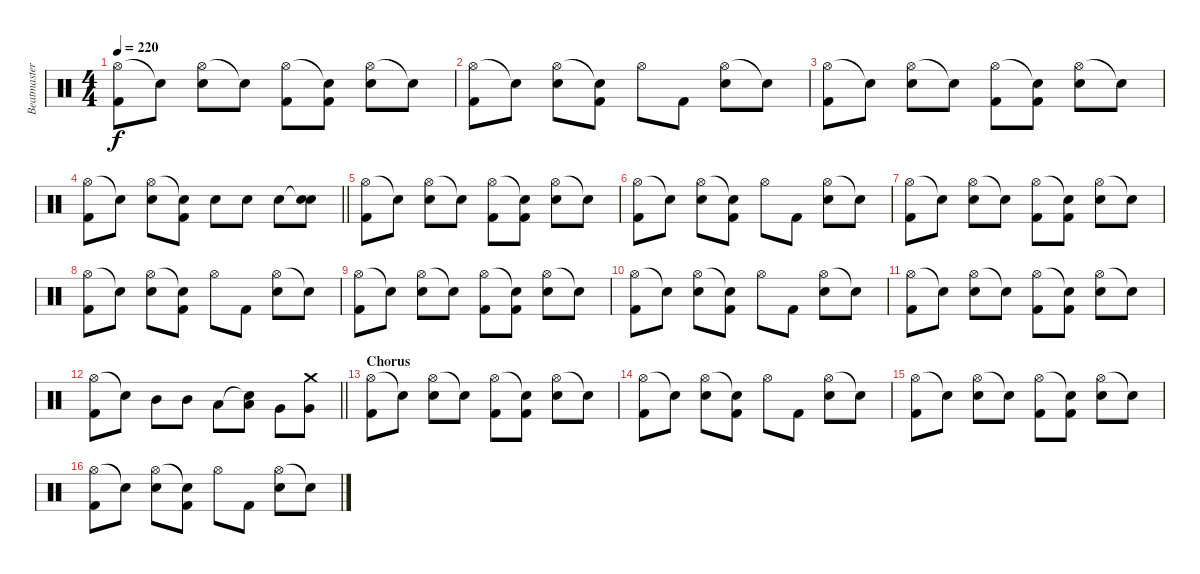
\track ("Beatmaster V" "Beatmaster") {instrument percussion}
\staff {score}
\articulation defaults
\ts (4 4)
\tempo 220
\clef neutral
\ks c
("Hi-Hat (open)" "Kick (hit) 2").8{dy f} "Snare (hit)"{t}.8 ("Hi-Hat (open)" "Snare (hit) 2").8 "Snare (hit)"{t}.8 ("Hi-Hat (open)" "Kick (hit) 2").8 ("Snare (hit)"{t} "Kick (hit) 2").8 ("Hi-Hat (open)" "Snare (hit) 2").8 "Snare (hit)"{t}.8 |
("Hi-Hat (open)" "Kick (hit) 2").8 "Snare (hit)"{t}.8 ("Hi-Hat (open)" "Snare (hit) 2").8 ("Snare (hit)"{t} "Kick (hit) 2").8 "Hi-Hat (open)".8 "Kick (hit) 2".8 ("Hi-Hat (open)" "Snare (hit) 2").8 "Snare (hit)"{t}.8 |
("Hi-Hat (open)" "Kick (hit) 2").8 "Snare (hit)"{t}.8 ("Hi-Hat (open)" "Snare (hit) 2").8 "Snare (hit)"{t}.8 ("Hi-Hat (open)" "Kick (hit) 2").8 ("Snare (hit)"{t} "Kick (hit) 2").8 ("Hi-Hat (open)" "Snare (hit) 2").8 "Snare (hit)"{t}.8 |
\barLineRight lightlight
("Hi-Hat (open)" "Kick (hit) 2").8 "Snare (hit)"{t}.8 ("Hi-Hat (open)" "Snare (hit) 2").8 ("Snare (hit)"{t} "Kick (hit) 2").8 "Snare (hit) 2".8 "Snare (hit) 2".8 "Snare (hit) 2".8 ("Snare (hit)"{t} "Snare (hit) 2").8 |
("Hi-Hat (open)" "Kick (hit) 2").8 "Snare (hit)"{t}.8 ("Hi-Hat (open)" "Snare (hit) 2").8 "Snare (hit)"{t}.8 ("Hi-Hat (open)" "Kick (hit) 2").8 ("Snare (hit)"{t} "Kick (hit) 2").8 ("Hi-Hat (open)" "Snare (hit) 2").8 "Snare (hit)"{t}.8 |
("Hi-Hat (open)" "Kick (hit) 2").8 "Snare (hit)"{t}.8 ("Hi-Hat (open)" "Snare (hit) 2").8 ("Snare (hit)"{t} "Kick (hit) 2").8 "Hi-Hat (open)".8 "Kick (hit) 2".8 ("Hi-Hat (open)" "Snare (hit) 2").8 "Snare (hit)"{t}.8 |
("Hi-Hat (open)" "Kick (hit) 2").8 "Snare (hit)"{t}.8 ("Hi-Hat (open)" "Snare (hit) 2").8 "Snare (hit)"{t}.8 ("Hi-Hat (open)" "Kick (hit) 2").8 ("Snare (hit)"{t} "Kick (hit) 2").8 ("Hi-Hat (open)" "Snare (hit) 2").8 "Snare (hit)"{t}.8 |
("Hi-Hat (open)" "Kick (hit) 2").8 "Snare (hit)"{t}.8 ("Hi-Hat (open)" "Snare (hit) 2").8 ("Snare (hit)"{t} "Kick (hit) 2").8 "Hi-Hat (open)".8 "Kick (hit) 2".8 ("Hi-Hat (open)" "Snare (hit) 2").8 "Snare (hit)"{t}.8 |
("Hi-Hat (open)" "Kick (hit) 2").8 "Snare (hit)"{t}.8 ("Hi-Hat (open)" "Snare (hit) 2").8 "Snare (hit)"{t}.8 ("Hi-Hat (open)" "Kick (hit) 2").8 ("Snare (hit)"{t} "Kick (hit) 2").8 ("Hi-Hat (open)" "Snare (hit) 2").8 "Snare (hit)"{t}.8 |
("Hi-Hat (open)" "Kick (hit) 2").8 "Snare (hit)"{t}.8 ("Hi-Hat (open)" "Snare (hit) 2").8 ("Snare (hit)"{t} "Kick (hit) 2").8 "Hi-Hat (open)".8 "Kick (hit) 2".8 ("Hi-Hat (open)" "Snare (hit) 2").8 "Snare (hit)"{t}.8 |
("Hi-Hat (open)" "Kick (hit) 2").8 "Snare (hit)"{t}.8 ("Hi-Hat (open)" "Snare (hit) 2").8 "Snare (hit)"{t}.8 ("Hi-Hat (open)" "Kick (hit) 2").8 ("Snare (hit)"{t} "Kick (hit) 2").8 ("Hi-Hat (open)" "Snare (hit) 2").8 "Snare (hit)"{t}.8 |
\barLineRight lightlight
("Hi-Hat (open)" "Kick (hit) 2").8 "Snare (hit)"{t}.8 "Mid Tom (hit)".8 "Mid Tom (hit)".8 "Low Tom (hit)".8 ("Snare (hit)"{t} "Low Tom (hit)").8 "Very Low Tom (hit)".8 ("Crash medium (hit)" "Very Low Tom (hit)").8 |
\section ("" "Chorus")
("Hi-Hat (open)" "Kick (hit) 2").8 "Snare (hit)"{t}.8 ("Hi-Hat (open)" "Snare (hit) 2").8 "Snare (hit)"{t}.8 ("Hi-Hat (open)" "Kick (hit) 2").8 ("Snare (hit)"{t} "Kick (hit) 2").8 ("Hi-Hat (open)" "Snare (hit) 2").8 "Snare (hit)"{t}.8 |
("Hi-Hat (open)" "Kick (hit) 2").8 "Snare (hit)"{t}.8 ("Hi-Hat (open)" "Snare (hit) 2").8 ("Snare (hit)"{t} "Kick (hit) 2").8 "Hi-Hat (open)".8 "Kick (hit) 2".8 ("Hi-Hat (open)" "Snare (hit) 2").8 "Snare (hit)"{t}.8 |
("Hi-Hat (open)" "Kick (hit) 2").8 "Snare (hit)"{t}.8 ("Hi-Hat (open)" "Snare (hit) 2").8 "Snare (hit)"{t}.8 ("Hi-Hat (open)" "Kick (hit) 2").8 ("Snare (hit)"{t} "Kick (hit) 2").8 ("Hi-Hat (open)" "Snare (hit) 2").8 "Snare (hit)"{t}.8 |
("Hi-Hat (open)" "Kick (hit) 2").8 "Snare (hit)"{t}.8 ("Hi-Hat (open)" "Snare (hit) 2").8 ("Snare (hit)"{t} "Kick (hit) 2").8 "Hi-Hat (open)".8 "Kick (hit) 2".8 ("Hi-Hat (open)" "Snare (hit) 2").8 "Snare (hit)"{t}.8
